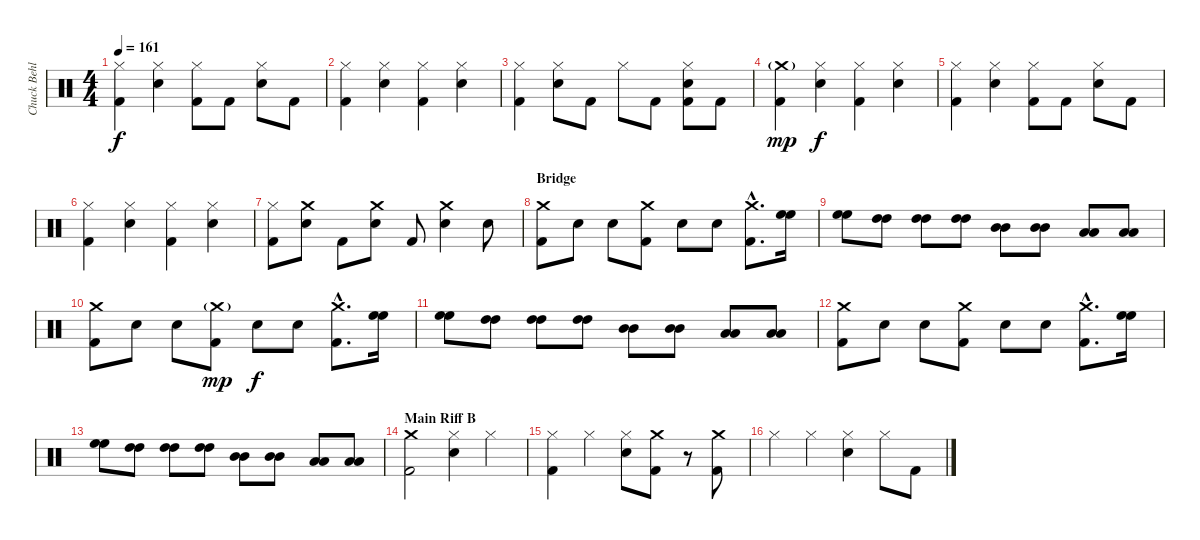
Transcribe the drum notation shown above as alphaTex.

\track ("Chuck Behler" "Chuck Behl") {instrument percussion}
\staff {score}
\articulation defaults
\ts (4 4)
\tempo 161
\clef neutral
\ks c
("Hi-Hat (closed)" "Kick (hit) 2").4{dy f} ("Hi-Hat (closed)" "Snare (hit) 2").4 ("Hi-Hat (closed)" "Kick (hit) 2").8 "Kick (hit) 2".8 ("Hi-Hat (closed)" "Snare (hit) 2").8 "Kick (hit) 2".8 |
("Hi-Hat (closed)" "Kick (hit) 2").4 ("Hi-Hat (closed)" "Snare (hit) 2").4 ("Hi-Hat (closed)" "Kick (hit) 2").4 ("Hi-Hat (closed)" "Snare (hit) 2").4 |
("Hi-Hat (closed)" "Kick (hit) 2").4 ("Hi-Hat (closed)" "Snare (hit) 2").8 "Kick (hit) 2".8 "Hi-Hat (closed)".8 "Kick (hit) 2".8 ("Hi-Hat (closed)" "Snare (hit) 2" "Kick (hit) 2").8 "Kick (hit) 2".8 |
("Crash medium (hit)"{g} "Kick (hit) 2").4{dy mp} ("Hi-Hat (closed)" "Snare (hit) 2").4{dy f} ("Hi-Hat (closed)" "Kick (hit) 2").4 ("Hi-Hat (closed)" "Snare (hit) 2").4 |
("Hi-Hat (closed)" "Kick (hit) 2").4 ("Hi-Hat (closed)" "Snare (hit) 2").4 ("Hi-Hat (closed)" "Kick (hit) 2").8 "Kick (hit) 2".8 ("Hi-Hat (closed)" "Snare (hit) 2").8 "Kick (hit) 2".8 |
("Hi-Hat (closed)" "Kick (hit) 2").4 ("Hi-Hat (closed)" "Snare (hit) 2").4 ("Hi-Hat (closed)" "Kick (hit) 2").4 ("Hi-Hat (closed)" "Snare (hit) 2").4 |
("Hi-Hat (closed)" "Kick (hit) 2").8 ("Crash medium (hit)" "Snare (hit) 2").8 "Kick (hit) 2".8 ("Crash medium (hit)" "Snare (hit) 2").8 "Kick (hit) 2".8 ("Crash medium (hit)" "Snare (hit) 2").4 "Snare (hit) 2".8 |
\section ("" "Bridge")
("Crash medium (hit)" "Kick (hit) 2").8 "Snare (hit) 2".8 "Snare (hit) 2".8 ("Crash medium (hit)" "Kick (hit) 2").8 "Snare (hit) 2".8 "Snare (hit) 2".8 ("Crash medium (hit)"{hac} "Kick (hit) 2"{hac}).8{d} ("High Floor Tom (hit)" "High Floor Tom (hit)").16 |
("High Floor Tom (hit)" "High Floor Tom (hit)").8 ("High Tom (hit)" "High Tom (hit)").8 ("High Tom (hit)" "High Tom (hit)").8 ("High Tom (hit)" "High Tom (hit)").8 ("Mid Tom (hit)" "Mid Tom (hit)").8 ("Mid Tom (hit)" "Mid Tom (hit)").8 ("Low Tom (hit)" "Low Tom (hit)").8 ("Low Tom (hit)" "Low Tom (hit)").8 |
("Crash medium (hit)" "Kick (hit) 2").8 "Snare (hit) 2".8 "Snare (hit) 2".8 ("Crash medium (hit)"{g} "Kick (hit) 2").8{dy mp} "Snare (hit) 2".8{dy f} "Snare (hit) 2".8 ("Crash medium (hit)"{hac} "Kick (hit) 2"{hac}).8{d} ("High Floor Tom (hit)" "High Floor Tom (hit)").16 |
("High Floor Tom (hit)" "High Floor Tom (hit)").8 ("High Tom (hit)" "High Tom (hit)").8 ("High Tom (hit)" "High Tom (hit)").8 ("High Tom (hit)" "High Tom (hit)").8 ("Mid Tom (hit)" "Mid Tom (hit)").8 ("Mid Tom (hit)" "Mid Tom (hit)").8 ("Low Tom (hit)" "Low Tom (hit)").8 ("Low Tom (hit)" "Low Tom (hit)").8 |
("Crash medium (hit)" "Kick (hit) 2").8 "Snare (hit) 2".8 "Snare (hit) 2".8 ("Crash medium (hit)" "Kick (hit) 2").8 "Snare (hit) 2".8 "Snare (hit) 2".8 ("Crash medium (hit)"{hac} "Kick (hit) 2"{hac}).8{d} ("High Floor Tom (hit)" "High Floor Tom (hit)").16 |
("High Floor Tom (hit)" "High Floor Tom (hit)").8 ("High Tom (hit)" "High Tom (hit)").8 ("High Tom (hit)" "High Tom (hit)").8 ("High Tom (hit)" "High Tom (hit)").8 ("Mid Tom (hit)" "Mid Tom (hit)").8 ("Mid Tom (hit)" "Mid Tom (hit)").8 ("Low Tom (hit)" "Low Tom (hit)").8 ("Low Tom (hit)" "Low Tom (hit)").8 |
\section ("" "Main Riff B")
("Crash medium (hit)" "Kick (hit) 2").2 ("Hi-Hat (closed)" "Snare (hit) 2").4 "Hi-Hat (closed)".4 |
("Hi-Hat (closed)" "Kick (hit) 2").4 "Hi-Hat (closed)".4 ("Hi-Hat (closed)" "Snare (hit) 2").8 ("Crash medium (hit)" "Kick (hit) 2").8 r.8 ("Crash medium (hit)" "Kick (hit) 2").8 |
"Hi-Hat (closed)".4 "Hi-Hat (closed)".4 ("Hi-Hat (closed)" "Snare (hit) 2").4 "Hi-Hat (closed)".8 "Kick (hit) 2".8
